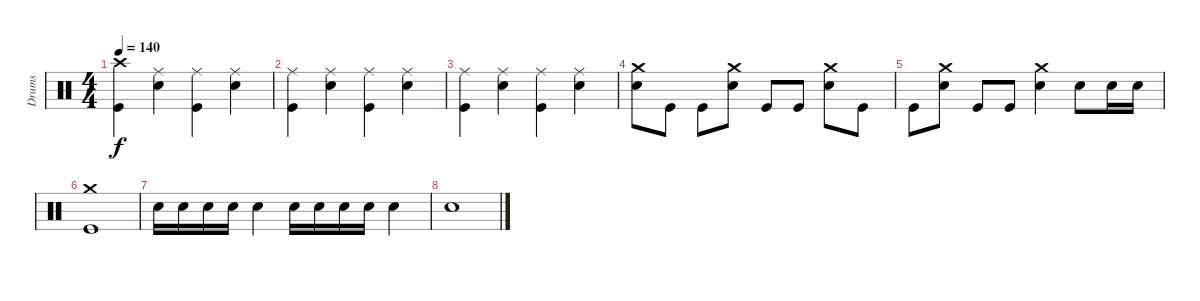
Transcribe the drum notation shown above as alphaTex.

\track ("Drums" "Drums") {instrument percussion}
\staff {score}
\articulation defaults
\ts (4 4)
\tempo 140
\clef neutral
\ks c
("Crash high (hit)" "Kick (hit)").4{dy f} ("Ride (middle)" "Electric Snare (hit)").4 ("Ride (middle)" "Kick (hit)").4 ("Ride (middle)" "Electric Snare (hit)").4 |
("Ride (middle)" "Kick (hit)").4 ("Ride (middle)" "Electric Snare (hit)").4 ("Ride (middle)" "Kick (hit)").4 ("Ride (middle)" "Electric Snare (hit)").4 |
("Ride (middle)" "Kick (hit)").4 ("Ride (middle)" "Electric Snare (hit)").4 ("Ride (middle)" "Kick (hit)").4 ("Ride (middle)" "Electric Snare (hit)").4 |
("Crash medium (hit)" "Electric Snare (hit)").8 "Kick (hit)".8 "Kick (hit)".8 ("Crash medium (hit)" "Electric Snare (hit)").8 "Kick (hit)".8 "Kick (hit)".8 ("Crash medium (hit)" "Electric Snare (hit)").8 "Kick (hit)".8 |
"Kick (hit)".8 ("Crash medium (hit)" "Electric Snare (hit)").8 "Kick (hit)".8 "Kick (hit)".8 ("Crash medium (hit)" "Electric Snare (hit)").4 "Electric Snare (hit)".8 "Electric Snare (hit)".16 "Electric Snare (hit)".16 |
("Crash medium (hit)" "Kick (hit)").1 |
"Snare (hit) 2".16 "Snare (hit) 2".16 "Snare (hit) 2".16 "Snare (hit) 2".16 "Snare (hit) 2".4 "Snare (hit) 2".16 "Snare (hit) 2".16 "Snare (hit) 2".16 "Snare (hit) 2".16 "Snare (hit) 2".4 |
"Snare (hit) 2".1
